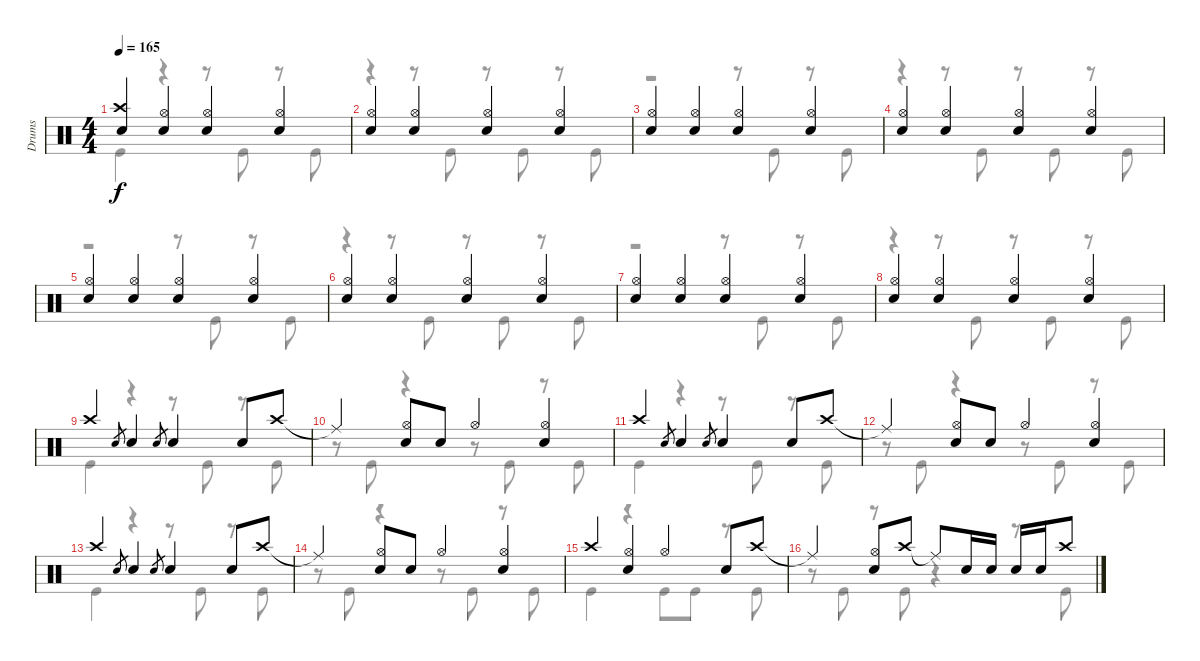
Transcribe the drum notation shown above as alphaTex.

\track ("Drums" "Drums") {instrument percussion}
\staff {score}
\articulation defaults
\voice
\ts (4 4)
\tempo 165
\clef neutral
\ks c
("Crash high (hit)" "Snare (hit) 2").4{dy f beam Up} ("Hi-Hat (open)" "Snare (hit) 2").4{beam Up} ("Hi-Hat (open)" "Snare (hit) 2").4{beam Up} ("Hi-Hat (open)" "Snare (hit) 2").4{beam Up} |
("Hi-Hat (open)" "Snare (hit) 2").4{beam Up} ("Hi-Hat (open)" "Snare (hit) 2").4{beam Up} ("Hi-Hat (open)" "Snare (hit) 2").4{beam Up} ("Hi-Hat (open)" "Snare (hit) 2").4{beam Up} |
("Hi-Hat (open)" "Snare (hit) 2").4{beam Up} ("Hi-Hat (open)" "Snare (hit) 2").4{beam Up} ("Hi-Hat (open)" "Snare (hit) 2").4{beam Up} ("Hi-Hat (open)" "Snare (hit) 2").4{beam Up} |
("Hi-Hat (open)" "Snare (hit) 2").4{beam Up} ("Hi-Hat (open)" "Snare (hit) 2").4{beam Up} ("Hi-Hat (open)" "Snare (hit) 2").4{beam Up} ("Hi-Hat (open)" "Snare (hit) 2").4{beam Up} |
("Hi-Hat (open)" "Snare (hit) 2").4{beam Up} ("Hi-Hat (open)" "Snare (hit) 2").4{beam Up} ("Hi-Hat (open)" "Snare (hit) 2").4{beam Up} ("Hi-Hat (open)" "Snare (hit) 2").4{beam Up} |
("Hi-Hat (open)" "Snare (hit) 2").4{beam Up} ("Hi-Hat (open)" "Snare (hit) 2").4{beam Up} ("Hi-Hat (open)" "Snare (hit) 2").4{beam Up} ("Hi-Hat (open)" "Snare (hit) 2").4{beam Up} |
("Hi-Hat (open)" "Snare (hit) 2").4{beam Up} ("Hi-Hat (open)" "Snare (hit) 2").4{beam Up} ("Hi-Hat (open)" "Snare (hit) 2").4{beam Up} ("Hi-Hat (open)" "Snare (hit) 2").4{beam Up} |
("Hi-Hat (open)" "Snare (hit) 2").4{beam Up} ("Hi-Hat (open)" "Snare (hit) 2").4{beam Up} ("Hi-Hat (open)" "Snare (hit) 2").4{beam Up} ("Hi-Hat (open)" "Snare (hit) 2").4{beam Up} |
"Crash high (hit)".4{beam Up} "Snare (hit) 2".8{gr} "Snare (hit) 2".4{beam Up} "Snare (hit) 2".8{gr} "Snare (hit) 2".4{beam Up} "Snare (hit) 2".8{beam Up} "Crash high (hit)".8{beam Up} |
"Ride (middle)"{t}.4{beam Up} ("Hi-Hat (open)" "Snare (hit) 2").8{beam Up} "Snare (hit) 2".8{beam Up} "Hi-Hat (open)".4{beam Up} ("Hi-Hat (open)" "Snare (hit) 2").4{beam Up} |
"Crash high (hit)".4{beam Up} "Snare (hit) 2".8{gr} "Snare (hit) 2".4{beam Up} "Snare (hit) 2".8{gr} "Snare (hit) 2".4{beam Up} "Snare (hit) 2".8{beam Up} "Crash high (hit)".8{beam Up} |
"Ride (middle)"{t}.4{beam Up} ("Hi-Hat (open)" "Snare (hit) 2").8{beam Up} "Snare (hit) 2".8{beam Up} "Hi-Hat (open)".4{beam Up} ("Hi-Hat (open)" "Snare (hit) 2").4{beam Up} |
"Crash high (hit)".4{beam Up} "Snare (hit) 2".8{gr} "Snare (hit) 2".4{beam Up} "Snare (hit) 2".8{gr} "Snare (hit) 2".4{beam Up} "Snare (hit) 2".8{beam Up} "Crash high (hit)".8{beam Up} |
"Ride (middle)"{t}.4{beam Up} ("Hi-Hat (open)" "Snare (hit) 2").8{beam Up} "Snare (hit) 2".8{beam Up} "Hi-Hat (open)".4{beam Up} ("Hi-Hat (open)" "Snare (hit) 2").4{beam Up} |
"Crash high (hit)".4{beam Up} ("Hi-Hat (open)" "Snare (hit) 2").4{beam Up} "Hi-Hat (open)".4{beam Up} "Snare (hit) 2".8{beam Up} "Crash high (hit)".8{beam Up} |
"Ride (middle)"{t}.4{beam Up} ("Hi-Hat (open)" "Snare (hit) 2").8{beam Up} "Crash high (hit)".8{beam Up} "Ride (middle)"{t}.8{beam Up} "Snare (hit) 2".16{beam Up} "Snare (hit) 2".16{beam Up} "Snare (hit) 2".16{beam Up} "Snare (hit) 2".16{beam Up} "Crash high (hit)".8{beam Up}
\voice
\clef neutral
\ottava regular
\simile none
\ks c "Kick (hit)".4{dy f}
r.4 r.8 "Kick (hit)".8 r.8 "Kick (hit)".8 |
r.4 r.8 "Kick (hit)".8 r.8 "Kick (hit)".8 r.8 "Kick (hit)".8 |
r.2 r.8 "Kick (hit)".8 r.8 "Kick (hit)".8 |
r.4 r.8 "Kick (hit)".8 r.8 "Kick (hit)".8 r.8 "Kick (hit)".8 |
r.2 r.8 "Kick (hit)".8 r.8 "Kick (hit)".8 |
r.4 r.8 "Kick (hit)".8 r.8 "Kick (hit)".8 r.8 "Kick (hit)".8 |
r.2 r.8 "Kick (hit)".8 r.8 "Kick (hit)".8 |
r.4 r.8 "Kick (hit)".8 r.8 "Kick (hit)".8 r.8 "Kick (hit)".8 |
"Kick (hit)".4 r.4 r.8 "Kick (hit)".8 r.8 "Kick (hit)".8 |
r.8 "Kick (hit)".8 r.4 r.8 "Kick (hit)".8 r.8 "Kick (hit)".8 |
"Kick (hit)".4 r.4 r.8 "Kick (hit)".8 r.8 "Kick (hit)".8 |
r.8 "Kick (hit)".8 r.4 r.8 "Kick (hit)".8 r.8 "Kick (hit)".8 |
"Kick (hit)".4 r.4 r.8 "Kick (hit)".8 r.8 "Kick (hit)".8 |
r.8 "Kick (hit)".8 r.4 r.8 "Kick (hit)".8 r.8 "Kick (hit)".8 |
"Kick (hit)".4 r.4 "Kick (hit)".8 "Kick (hit)".8 r.8 "Kick (hit)".8 |
r.8 "Kick (hit)".8 r.8 "Kick (hit)".8 r.4 r.8 "Kick (hit)".8
